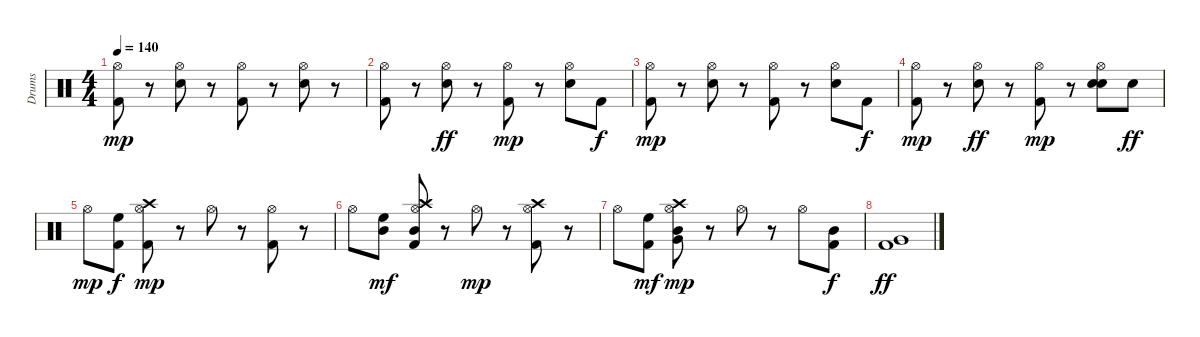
\track ("Drums" "Drums") {instrument percussion}
\staff {score}
\articulation defaults
\ts (4 4)
\tempo 140
\clef neutral
\ks c
("Kick (hit) 2" "Hi-Hat (open)").8{dy mp} r.8 ("Snare (hit) 2" "Hi-Hat (open)").8 r.8 ("Kick (hit) 2" "Hi-Hat (open)").8 r.8 ("Snare (hit) 2" "Hi-Hat (open)").8 r.8 |
("Hi-Hat (open)" "Kick (hit) 2").8 r.8 ("Hi-Hat (open)" "Snare (hit) 2").8{dy ff} r.8 ("Hi-Hat (open)" "Kick (hit) 2").8{dy mp} r.8 ("Snare (hit) 2" "Hi-Hat (open)").8 "Kick (hit) 2".8{dy f} |
("Kick (hit) 2" "Hi-Hat (open)").8{dy mp} r.8 ("Snare (hit) 2" "Hi-Hat (open)").8 r.8 ("Kick (hit) 2" "Hi-Hat (open)").8 r.8 ("Snare (hit) 2" "Hi-Hat (open)").8 "Kick (hit) 2".8{dy f} |
("Kick (hit) 2" "Hi-Hat (open)").8{dy mp} r.8 ("Hi-Hat (open)" "Snare (hit) 2").8{dy ff} r.8 ("Hi-Hat (open)" "Kick (hit) 2").8{dy mp} r.8 ("Snare (hit) 2" "Snare (hit) 2" "Hi-Hat (open)").8 "Snare (hit) 2".8{dy ff} |
"Hi-Hat (open)".8{dy mp} ("Kick (hit) 2" "High Floor Tom (hit)").8{dy f} ("Kick (hit) 2" "Hi-Hat (open)" "Crash high (hit)").8{dy mp} r.8 "Hi-Hat (open)".8 r.8 ("Kick (hit) 2" "Hi-Hat (open)").8 r.8 |
"Hi-Hat (open)".8 ("Mid Tom (hit)" "High Floor Tom (hit)").8{dy mf} ("Kick (hit) 2" "Hi-Hat (open)" "Crash high (hit)" "Mid Tom (hit)").8 r.8 "Hi-Hat (open)".8{dy mp} r.8 ("Kick (hit) 2" "Hi-Hat (open)" "Crash high (hit)").8 r.8 |
"Hi-Hat (open)".8 ("Kick (hit) 2" "High Floor Tom (hit)").8{dy mf} ("Mid Tom (hit)" "Hi-Hat (open)" "Crash high (hit)" "Very Low Tom (hit)").8{dy mp} r.8 "Hi-Hat (open)".8 r.8 "Hi-Hat (open)".8 ("Mid Tom (hit)" "Kick (hit) 2").8{dy f} |
("Kick (hit) 2" "Very Low Tom (hit)").1{dy ff}
